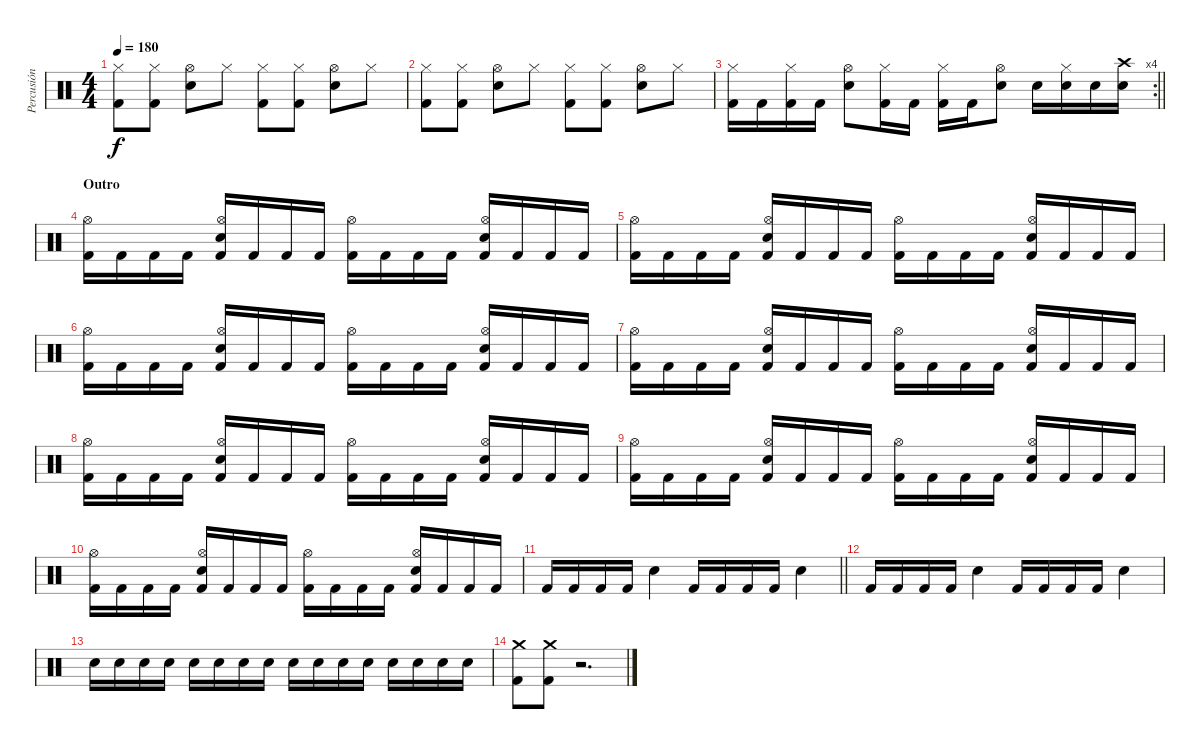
\track ("Percusión" "Percusión") {instrument percussion}
\staff {score}
\articulation defaults
\ts (4 4)
\tempo 180
\clef neutral
\ks c
("Hi-Hat (closed)" "Kick (hit) 2").8{dy f} ("Hi-Hat (closed)" "Kick (hit) 2").8 ("Hi-Hat (open)" "Snare (hit) 2").8 "Hi-Hat (closed)".8 ("Hi-Hat (closed)" "Kick (hit) 2").8 ("Hi-Hat (closed)" "Kick (hit) 2").8 ("Hi-Hat (open)" "Snare (hit) 2").8 "Hi-Hat (closed)".8 |
("Hi-Hat (closed)" "Kick (hit) 2").8 ("Hi-Hat (closed)" "Kick (hit) 2").8 ("Hi-Hat (open)" "Snare (hit) 2").8 "Hi-Hat (closed)".8 ("Hi-Hat (closed)" "Kick (hit) 2").8 ("Hi-Hat (closed)" "Kick (hit) 2").8 ("Hi-Hat (open)" "Snare (hit) 2").8 "Hi-Hat (closed)".8 |
\rc 4
\barLineRight lightlight
("Hi-Hat (closed)" "Kick (hit) 2").16 "Kick (hit) 2".16 ("Hi-Hat (closed)" "Kick (hit) 2").16 "Kick (hit) 2".16 ("Hi-Hat (open)" "Snare (hit) 2").8 ("Hi-Hat (closed)" "Kick (hit) 2").16 "Kick (hit) 2".16 ("Hi-Hat (closed)" "Kick (hit) 2").16 "Kick (hit) 2".16 ("Hi-Hat (open)" "Snare (hit) 2").8 "Snare (hit) 2".16 ("Hi-Hat (closed)" "Snare (hit) 2").16 "Snare (hit) 2".16 ("Crash high (hit)" "Snare (hit) 2").16 |
\section ("" "Outro")
("Hi-Hat (open)" "Kick (hit) 2").16 "Kick (hit) 2".16 "Kick (hit) 2".16 "Kick (hit) 2".16 ("Hi-Hat (open)" "Snare (hit) 2" "Kick (hit) 2").16 "Kick (hit) 2".16 "Kick (hit) 2".16 "Kick (hit) 2".16 ("Hi-Hat (open)" "Kick (hit) 2").16 "Kick (hit) 2".16 "Kick (hit) 2".16 "Kick (hit) 2".16 ("Hi-Hat (open)" "Snare (hit) 2" "Kick (hit) 2").16 "Kick (hit) 2".16 "Kick (hit) 2".16 "Kick (hit) 2".16 |
("Hi-Hat (open)" "Kick (hit) 2").16 "Kick (hit) 2".16 "Kick (hit) 2".16 "Kick (hit) 2".16 ("Hi-Hat (open)" "Snare (hit) 2" "Kick (hit) 2").16 "Kick (hit) 2".16 "Kick (hit) 2".16 "Kick (hit) 2".16 ("Hi-Hat (open)" "Kick (hit) 2").16 "Kick (hit) 2".16 "Kick (hit) 2".16 "Kick (hit) 2".16 ("Hi-Hat (open)" "Snare (hit) 2" "Kick (hit) 2").16 "Kick (hit) 2".16 "Kick (hit) 2".16 "Kick (hit) 2".16 |
("Hi-Hat (open)" "Kick (hit) 2").16 "Kick (hit) 2".16 "Kick (hit) 2".16 "Kick (hit) 2".16 ("Hi-Hat (open)" "Snare (hit) 2" "Kick (hit) 2").16 "Kick (hit) 2".16 "Kick (hit) 2".16 "Kick (hit) 2".16 ("Hi-Hat (open)" "Kick (hit) 2").16 "Kick (hit) 2".16 "Kick (hit) 2".16 "Kick (hit) 2".16 ("Hi-Hat (open)" "Snare (hit) 2" "Kick (hit) 2").16 "Kick (hit) 2".16 "Kick (hit) 2".16 "Kick (hit) 2".16 |
("Hi-Hat (open)" "Kick (hit) 2").16 "Kick (hit) 2".16 "Kick (hit) 2".16 "Kick (hit) 2".16 ("Hi-Hat (open)" "Snare (hit) 2" "Kick (hit) 2").16 "Kick (hit) 2".16 "Kick (hit) 2".16 "Kick (hit) 2".16 ("Hi-Hat (open)" "Kick (hit) 2").16 "Kick (hit) 2".16 "Kick (hit) 2".16 "Kick (hit) 2".16 ("Hi-Hat (open)" "Snare (hit) 2" "Kick (hit) 2").16 "Kick (hit) 2".16 "Kick (hit) 2".16 "Kick (hit) 2".16 |
("Hi-Hat (open)" "Kick (hit) 2").16 "Kick (hit) 2".16 "Kick (hit) 2".16 "Kick (hit) 2".16 ("Hi-Hat (open)" "Snare (hit) 2" "Kick (hit) 2").16 "Kick (hit) 2".16 "Kick (hit) 2".16 "Kick (hit) 2".16 ("Hi-Hat (open)" "Kick (hit) 2").16 "Kick (hit) 2".16 "Kick (hit) 2".16 "Kick (hit) 2".16 ("Hi-Hat (open)" "Snare (hit) 2" "Kick (hit) 2").16 "Kick (hit) 2".16 "Kick (hit) 2".16 "Kick (hit) 2".16 |
("Hi-Hat (open)" "Kick (hit) 2").16 "Kick (hit) 2".16 "Kick (hit) 2".16 "Kick (hit) 2".16 ("Hi-Hat (open)" "Snare (hit) 2" "Kick (hit) 2").16 "Kick (hit) 2".16 "Kick (hit) 2".16 "Kick (hit) 2".16 ("Hi-Hat (open)" "Kick (hit) 2").16 "Kick (hit) 2".16 "Kick (hit) 2".16 "Kick (hit) 2".16 ("Hi-Hat (open)" "Snare (hit) 2" "Kick (hit) 2").16 "Kick (hit) 2".16 "Kick (hit) 2".16 "Kick (hit) 2".16 |
("Hi-Hat (open)" "Kick (hit) 2").16 "Kick (hit) 2".16 "Kick (hit) 2".16 "Kick (hit) 2".16 ("Hi-Hat (open)" "Snare (hit) 2" "Kick (hit) 2").16 "Kick (hit) 2".16 "Kick (hit) 2".16 "Kick (hit) 2".16 ("Hi-Hat (open)" "Kick (hit) 2").16 "Kick (hit) 2".16 "Kick (hit) 2".16 "Kick (hit) 2".16 ("Hi-Hat (open)" "Snare (hit) 2" "Kick (hit) 2").16 "Kick (hit) 2".16 "Kick (hit) 2".16 "Kick (hit) 2".16 |
\barLineRight lightlight "Kick (hit) 2".16 "Kick (hit) 2".16 "Kick (hit) 2".16 "Kick (hit) 2".16 "Snare (hit) 2".4 "Kick (hit) 2".16 "Kick (hit) 2".16 "Kick (hit) 2".16 "Kick (hit) 2".16 "Snare (hit) 2".4
|
"Kick (hit) 2".16 "Kick (hit) 2".16 "Kick (hit) 2".16 "Kick (hit) 2".16 "Snare (hit) 2".4 "Kick (hit) 2".16 "Kick (hit) 2".16 "Kick (hit) 2".16 "Kick (hit) 2".16 "Snare (hit) 2".4 |
"Snare (hit) 2".16 "Snare (hit) 2".16 "Snare (hit) 2".16 "Snare (hit) 2".16 "Snare (hit) 2".16 "Snare (hit) 2".16 "Snare (hit) 2".16 "Snare (hit) 2".16 "Snare (hit) 2".16 "Snare (hit) 2".16 "Snare (hit) 2".16 "Snare (hit) 2".16 "Snare (hit) 2".16 "Snare (hit) 2".16 "Snare (hit) 2".16 "Snare (hit) 2".16 |
("Crash medium (hit)" "Kick (hit) 2").8 ("Crash medium (hit)" "Kick (hit) 2").8 r.2{d}
